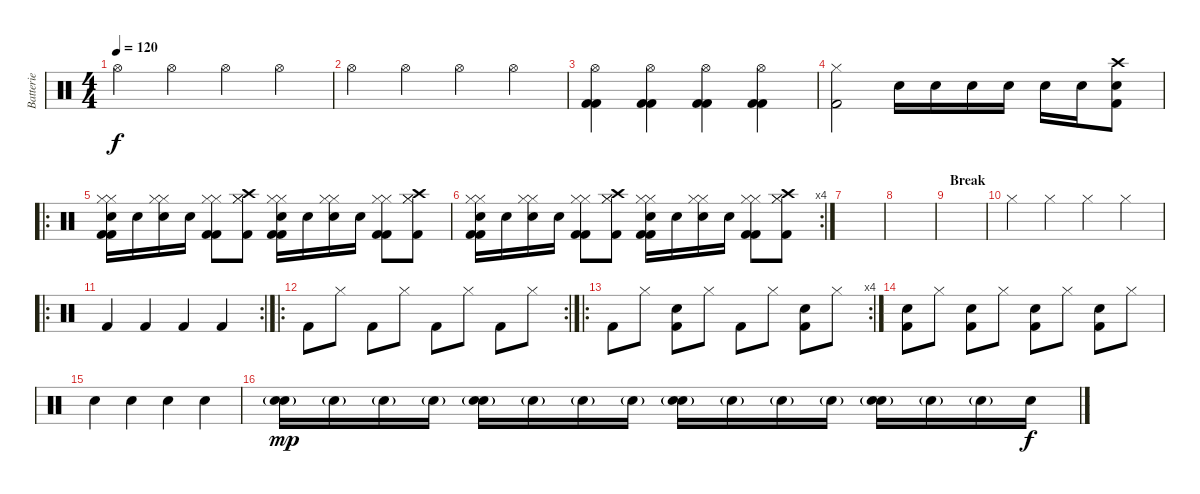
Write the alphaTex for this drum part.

\track ("Batterie" "Batterie") {instrument percussion}
\staff {score}
\articulation defaults
\ts (4 4)
\tempo 120
\clef neutral
\ks c "Hi-Hat (open)".4{dy f} "Hi-Hat (open)".4 "Hi-Hat (open)".4 "Hi-Hat (open)".4
|
"Hi-Hat (open)".4 "Hi-Hat (open)".4 "Hi-Hat (open)".4 "Hi-Hat (open)".4 |
("Hi-Hat (open)" "Kick (hit) 2" "Kick (hit) 2").4 ("Hi-Hat (open)" "Kick (hit) 2" "Kick (hit) 2").4 ("Hi-Hat (open)" "Kick (hit) 2" "Kick (hit) 2").4 ("Hi-Hat (open)" "Kick (hit) 2" "Kick (hit) 2").4 |
("Kick (hit) 2" "Hi-Hat (closed)").2 "Snare (hit) 2".16 "Snare (hit) 2".16 "Snare (hit) 2".16 "Snare (hit) 2".16 "Snare (hit) 2".16 "Snare (hit) 2".16 ("Snare (hit) 2" "Kick (hit) 2" "Crash high (hit)").8 |
\ro
("Snare (hit) 2" "Kick (hit) 2" "Kick (hit) 2" "Hi-Hat (closed)" "Hi-Hat (closed)").16 "Snare (hit) 2".16 ("Snare (hit) 2" "Hi-Hat (closed)" "Hi-Hat (closed)").16 "Snare (hit) 2".16 ("Kick (hit) 2" "Kick (hit) 2" "Hi-Hat (closed)" "Hi-Hat (closed)").8 ("Crash high (hit)" "Kick (hit) 2" "Hi-Hat (closed)" "Hi-Hat (closed)").8 ("Electric Snare (hit)" "Kick (hit) 2" "Kick (hit) 2" "Hi-Hat (closed)" "Hi-Hat (closed)").16 "Electric Snare (hit)".16 ("Electric Snare (hit)" "Hi-Hat (closed)" "Hi-Hat (closed)").16 "Electric Snare (hit)".16 ("Kick (hit) 2" "Kick (hit) 2" "Hi-Hat (closed)" "Hi-Hat (closed)").8 ("Crash high (hit)" "Kick (hit) 2" "Hi-Hat (closed)" "Hi-Hat (closed)").8 |
\rc 4
("Snare (hit) 2" "Kick (hit) 2" "Kick (hit) 2" "Hi-Hat (closed)" "Hi-Hat (closed)").16 "Snare (hit) 2".16 ("Snare (hit) 2" "Hi-Hat (closed)" "Hi-Hat (closed)").16 "Snare (hit) 2".16 ("Kick (hit) 2" "Kick (hit) 2" "Hi-Hat (closed)" "Hi-Hat (closed)").8 ("Crash high (hit)" "Kick (hit) 2" "Hi-Hat (closed)" "Hi-Hat (closed)").8 ("Electric Snare (hit)" "Kick (hit) 2" "Kick (hit) 2" "Hi-Hat (closed)" "Hi-Hat (closed)").16 "Electric Snare (hit)".16 ("Electric Snare (hit)" "Hi-Hat (closed)" "Hi-Hat (closed)").16 "Electric Snare (hit)".16 ("Kick (hit) 2" "Kick (hit) 2" "Hi-Hat (closed)" "Hi-Hat (closed)").8 ("Crash high (hit)" "Kick (hit) 2" "Hi-Hat (closed)" "Hi-Hat (closed)").8 |
|
|
\section ("" "Break")
|
"Hi-Hat (closed)".4 "Hi-Hat (closed)".4 "Hi-Hat (closed)".4 "Hi-Hat (closed)".4 |
\ro
\rc 2 "Kick (hit) 2".4 "Kick (hit) 2".4 "Kick (hit) 2".4 "Kick (hit) 2".4
|
\ro
\rc 2 "Kick (hit) 2".8 "Hi-Hat (closed)".8 "Kick (hit) 2".8 "Hi-Hat (closed)".8 "Kick (hit) 2".8 "Hi-Hat (closed)".8 "Kick (hit) 2".8 "Hi-Hat (closed)".8
|
\ro
\rc 4 "Kick (hit) 2".8 "Hi-Hat (closed)".8
("Kick (hit) 2" "Snare (hit) 2").8 "Hi-Hat (closed)".8 "Kick (hit) 2".8 "Hi-Hat (closed)".8 ("Kick (hit) 2" "Snare (hit) 2").8 "Hi-Hat (closed)".8 |
("Kick (hit) 2" "Electric Snare (hit)").8 "Hi-Hat (closed)".8 ("Kick (hit) 2" "Snare (hit) 2").8 "Hi-Hat (closed)".8 ("Kick (hit) 2" "Electric Snare (hit)").8 "Hi-Hat (closed)".8 ("Kick (hit) 2" "Snare (hit) 2").8 "Hi-Hat (closed)".8 |
"Electric Snare (hit)".4 "Electric Snare (hit)".4 "Electric Snare (hit)".4 "Electric Snare (hit)".4 |
("Electric Snare (hit)" "Snare (hit) 2"{g}).16{dy mp} "Snare (hit) 2"{g}.16 "Snare (hit) 2"{g}.16 "Snare (hit) 2"{g}.16 ("Electric Snare (hit)" "Snare (hit) 2"{g}).16 "Snare (hit) 2"{g}.16 "Snare (hit) 2"{g}.16 "Snare (hit) 2"{g}.16 ("Electric Snare (hit)" "Snare (hit) 2"{g}).16 "Snare (hit) 2"{g}.16 "Snare (hit) 2"{g}.16 "Snare (hit) 2"{g}.16 ("Electric Snare (hit)" "Snare (hit) 2"{g}).16 "Snare (hit) 2"{g}.16 "Snare (hit) 2"{g}.16 "Snare (hit) 2".16{dy f}
